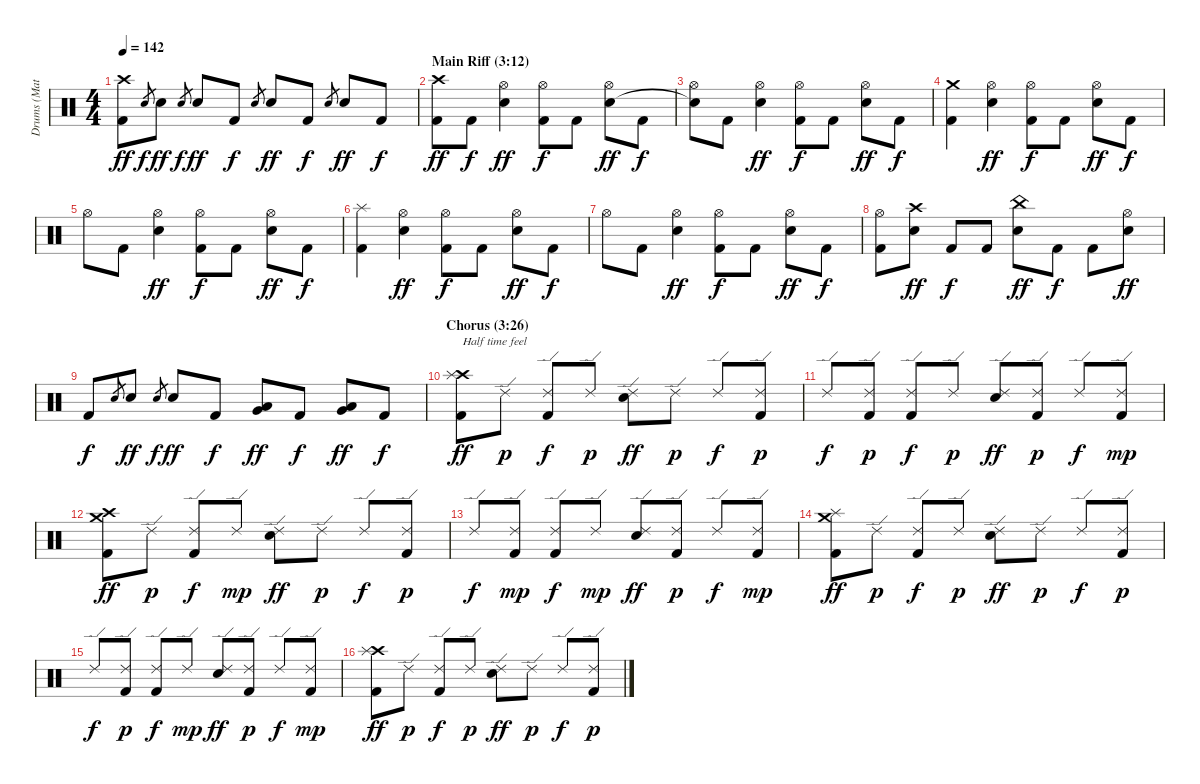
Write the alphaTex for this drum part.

\track ("Drums (Matt Sorum)" "Drums (Mat") {instrument percussion}
\staff {score}
\articulation defaults
\ts (4 4)
\tempo 142
\clef neutral
\ks c
("Crash high (hit)" "Kick (hit) 2").8{dy ff} "Snare (hit) 2".8{gr dy f} "Snare (hit) 2".8{dy ff} "Snare (hit) 2".8{gr dy f} "Snare (hit) 2".8{dy ff} "Kick (hit) 2".8{dy f} "Snare (hit) 2".8{gr} "Snare (hit) 2".8{dy ff} "Kick (hit) 2".8{dy f} "Snare (hit) 2".8{gr} "Snare (hit) 2".8{dy ff} "Kick (hit) 2".8{dy f} |
\section ("" "Main Riff (3:12)")
("Crash high (hit)" "Kick (hit) 2").8{dy ff} "Kick (hit) 2".8{dy f} ("Hi-Hat (open)" "Snare (hit) 2").4{dy ff} ("Hi-Hat (open)" "Kick (hit) 2").8{dy f} "Kick (hit) 2".8 ("Hi-Hat (open)" "Snare (hit) 2").8{dy ff} "Kick (hit) 2".8{dy f} |
("Hi-Hat (open)" "Snare (hit)"{t}).8 "Kick (hit) 2".8 ("Hi-Hat (open)" "Snare (hit) 2").4{dy ff} ("Hi-Hat (open)" "Kick (hit) 2").8{dy f} "Kick (hit) 2".8 ("Hi-Hat (open)" "Snare (hit) 2").8{dy ff} "Kick (hit) 2".8{dy f} |
("Crash medium (hit)" "Kick (hit) 2").4 ("Hi-Hat (open)" "Snare (hit) 2").4{dy ff} ("Hi-Hat (open)" "Kick (hit) 2").8{dy f} "Kick (hit) 2".8 ("Hi-Hat (open)" "Snare (hit) 2").8{dy ff} "Kick (hit) 2".8{dy f} |
"Hi-Hat (open)".8 "Kick (hit) 2".8 ("Hi-Hat (open)" "Snare (hit) 2").4{dy ff} ("Hi-Hat (open)" "Kick (hit) 2").8{dy f} "Kick (hit) 2".8 ("Hi-Hat (open)" "Snare (hit) 2").8{dy ff} "Kick (hit) 2".8{dy f} |
("Splash (hit)" "Kick (hit) 2").4 ("Hi-Hat (open)" "Snare (hit) 2").4{dy ff} ("Hi-Hat (open)" "Kick (hit) 2").8{dy f} "Kick (hit) 2".8 ("Hi-Hat (open)" "Snare (hit) 2").8{dy ff} "Kick (hit) 2".8{dy f} |
"Hi-Hat (open)".8 "Kick (hit) 2".8 ("Hi-Hat (open)" "Snare (hit) 2").4{dy ff} ("Hi-Hat (open)" "Kick (hit) 2").8{dy f} "Kick (hit) 2".8 ("Hi-Hat (open)" "Snare (hit) 2").8{dy ff} "Kick (hit) 2".8{dy f} |
("Hi-Hat (open)" "Kick (hit) 2").8 ("Crash high (hit)" "Snare (hit) 2").8{dy ff} "Kick (hit) 2".8{dy f} "Kick (hit) 2".8 ("China (hit)" "Snare (hit) 2").8{dy ff} "Kick (hit) 2".8{dy f} "Kick (hit) 2".8 ("Hi-Hat (open)" "Snare (hit) 2").8{dy ff} |
"Kick (hit) 2".8{dy f} "Snare (hit) 2".8{gr} "Snare (hit) 2".8{dy ff} "Snare (hit) 2".8{gr dy f} "Snare (hit) 2".8{dy ff} "Kick (hit) 2".8{dy f} ("Low Tom (hit)" "Very Low Tom (hit)").8{dy ff} "Kick (hit) 2".8{dy f} ("Low Floor Tom (hit)" "Very Low Tom (hit)").8{dy ff} "Kick (hit) 2".8{dy f} |
\section ("" "Chorus (3:26)")
("Crash high (hit)" "Splash (hit)" "Kick (hit) 2").8{txt "Half time feel" dy ff} "Ride (edge) 2".8{dy p} ("Ride (edge) 2" "Kick (hit) 2").8{dy f} "Ride (edge) 2".8{dy p} ("Ride (edge) 2" "Snare (hit) 2").8{dy ff} "Ride (edge) 2".8{dy p} "Ride (edge) 2".8{dy f} ("Ride (edge) 2" "Kick (hit) 2").8{dy p} |
"Ride (edge) 2".8{dy f} ("Ride (edge) 2" "Kick (hit) 2").8{dy p} ("Ride (edge) 2" "Kick (hit) 2").8{dy f} "Ride (edge) 2".8{dy p} ("Ride (edge) 2" "Snare (hit) 2").8{dy ff} ("Ride (edge) 2" "Kick (hit) 2").8{dy p} "Ride (edge) 2".8{dy f} ("Ride (edge) 2" "Kick (hit) 2").8{dy mp} |
("Crash high (hit)" "Crash medium (hit)" "Kick (hit) 2").8{dy ff} "Ride (edge) 2".8{dy p} ("Ride (edge) 2" "Kick (hit) 2").8{dy f} "Ride (edge) 2".8{dy mp} ("Ride (edge) 2" "Snare (hit) 2").8{dy ff} "Ride (edge) 2".8{dy p} "Ride (edge) 2".8{dy f} ("Ride (edge) 2" "Kick (hit) 2").8{dy p} |
"Ride (edge) 2".8{dy f} ("Ride (edge) 2" "Kick (hit) 2").8{dy mp} ("Ride (edge) 2" "Kick (hit) 2").8{dy f} "Ride (edge) 2".8{dy mp} ("Ride (edge) 2" "Snare (hit) 2").8{dy ff} ("Ride (edge) 2" "Kick (hit) 2").8{dy p} "Ride (edge) 2".8{dy f} ("Ride (edge) 2" "Kick (hit) 2").8{dy mp} |
("Crash medium (hit)" "Splash (hit)" "Kick (hit) 2").8{dy ff} "Ride (edge) 2".8{dy p} ("Ride (edge) 2" "Kick (hit) 2").8{dy f} "Ride (edge) 2".8{dy p} ("Ride (edge) 2" "Snare (hit) 2").8{dy ff} "Ride (edge) 2".8{dy p} "Ride (edge) 2".8{dy f} ("Ride (edge) 2" "Kick (hit) 2").8{dy p} |
"Ride (edge) 2".8{dy f} ("Ride (edge) 2" "Kick (hit) 2").8{dy p} ("Ride (edge) 2" "Kick (hit) 2").8{dy f} "Ride (edge) 2".8{dy mp} ("Ride (edge) 2" "Snare (hit) 2").8{dy ff} ("Ride (edge) 2" "Kick (hit) 2").8{dy p} "Ride (edge) 2".8{dy f} ("Ride (edge) 2" "Kick (hit) 2").8{dy mp} |
("Crash high (hit)" "Splash (hit)" "Kick (hit) 2").8{dy ff} "Ride (edge) 2".8{dy p} ("Ride (edge) 2" "Kick (hit) 2").8{dy f} "Ride (edge) 2".8{dy p} ("Ride (edge) 2" "Snare (hit) 2").8{dy ff} "Ride (edge) 2".8{dy p} "Ride (edge) 2".8{dy f} ("Ride (edge) 2" "Kick (hit) 2").8{dy p}
